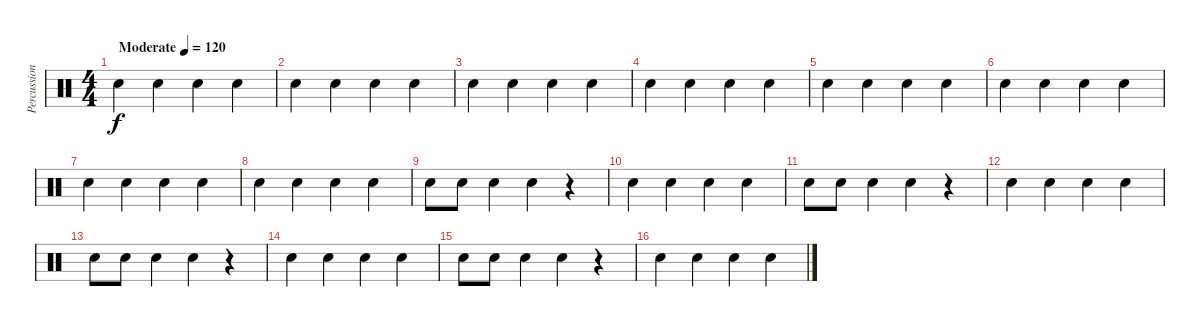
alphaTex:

\track ("Percussion" "Percussion") {instrument percussion}
\staff {score}
\articulation defaults
\ts (4 4)
\tempo (120 "Moderate")
\clef neutral
\ks c "Hand Clap (hit)".4{dy f} "Hand Clap (hit)".4 "Hand Clap (hit)".4 "Hand Clap (hit)".4
|
"Hand Clap (hit)".4 "Hand Clap (hit)".4 "Hand Clap (hit)".4 "Hand Clap (hit)".4 |
"Hand Clap (hit)".4 "Hand Clap (hit)".4 "Hand Clap (hit)".4 "Hand Clap (hit)".4 |
"Hand Clap (hit)".4 "Hand Clap (hit)".4 "Hand Clap (hit)".4 "Hand Clap (hit)".4 |
"Hand Clap (hit)".4 "Hand Clap (hit)".4 "Hand Clap (hit)".4 "Hand Clap (hit)".4 |
"Hand Clap (hit)".4 "Hand Clap (hit)".4 "Hand Clap (hit)".4 "Hand Clap (hit)".4 |
"Hand Clap (hit)".4 "Hand Clap (hit)".4 "Hand Clap (hit)".4 "Hand Clap (hit)".4 |
"Hand Clap (hit)".4 "Hand Clap (hit)".4 "Hand Clap (hit)".4 "Hand Clap (hit)".4 |
"Electric Snare (hit)".8 "Electric Snare (hit)".8 "Electric Snare (hit)".4 "Snare (hit) 2".4 r.4 |
"Hand Clap (hit)".4 "Hand Clap (hit)".4 "Hand Clap (hit)".4 "Hand Clap (hit)".4 |
"Electric Snare (hit)".8 "Electric Snare (hit)".8 "Electric Snare (hit)".4 "Snare (hit) 2".4 r.4 |
"Hand Clap (hit)".4 "Hand Clap (hit)".4 "Hand Clap (hit)".4 "Hand Clap (hit)".4 |
"Electric Snare (hit)".8 "Electric Snare (hit)".8 "Electric Snare (hit)".4 "Snare (hit) 2".4 r.4 |
"Hand Clap (hit)".4 "Hand Clap (hit)".4 "Hand Clap (hit)".4 "Hand Clap (hit)".4 |
"Electric Snare (hit)".8 "Electric Snare (hit)".8 "Electric Snare (hit)".4 "Snare (hit) 2".4 r.4 |
"Hand Clap (hit)".4 "Hand Clap (hit)".4 "Hand Clap (hit)".4 "Hand Clap (hit)".4
